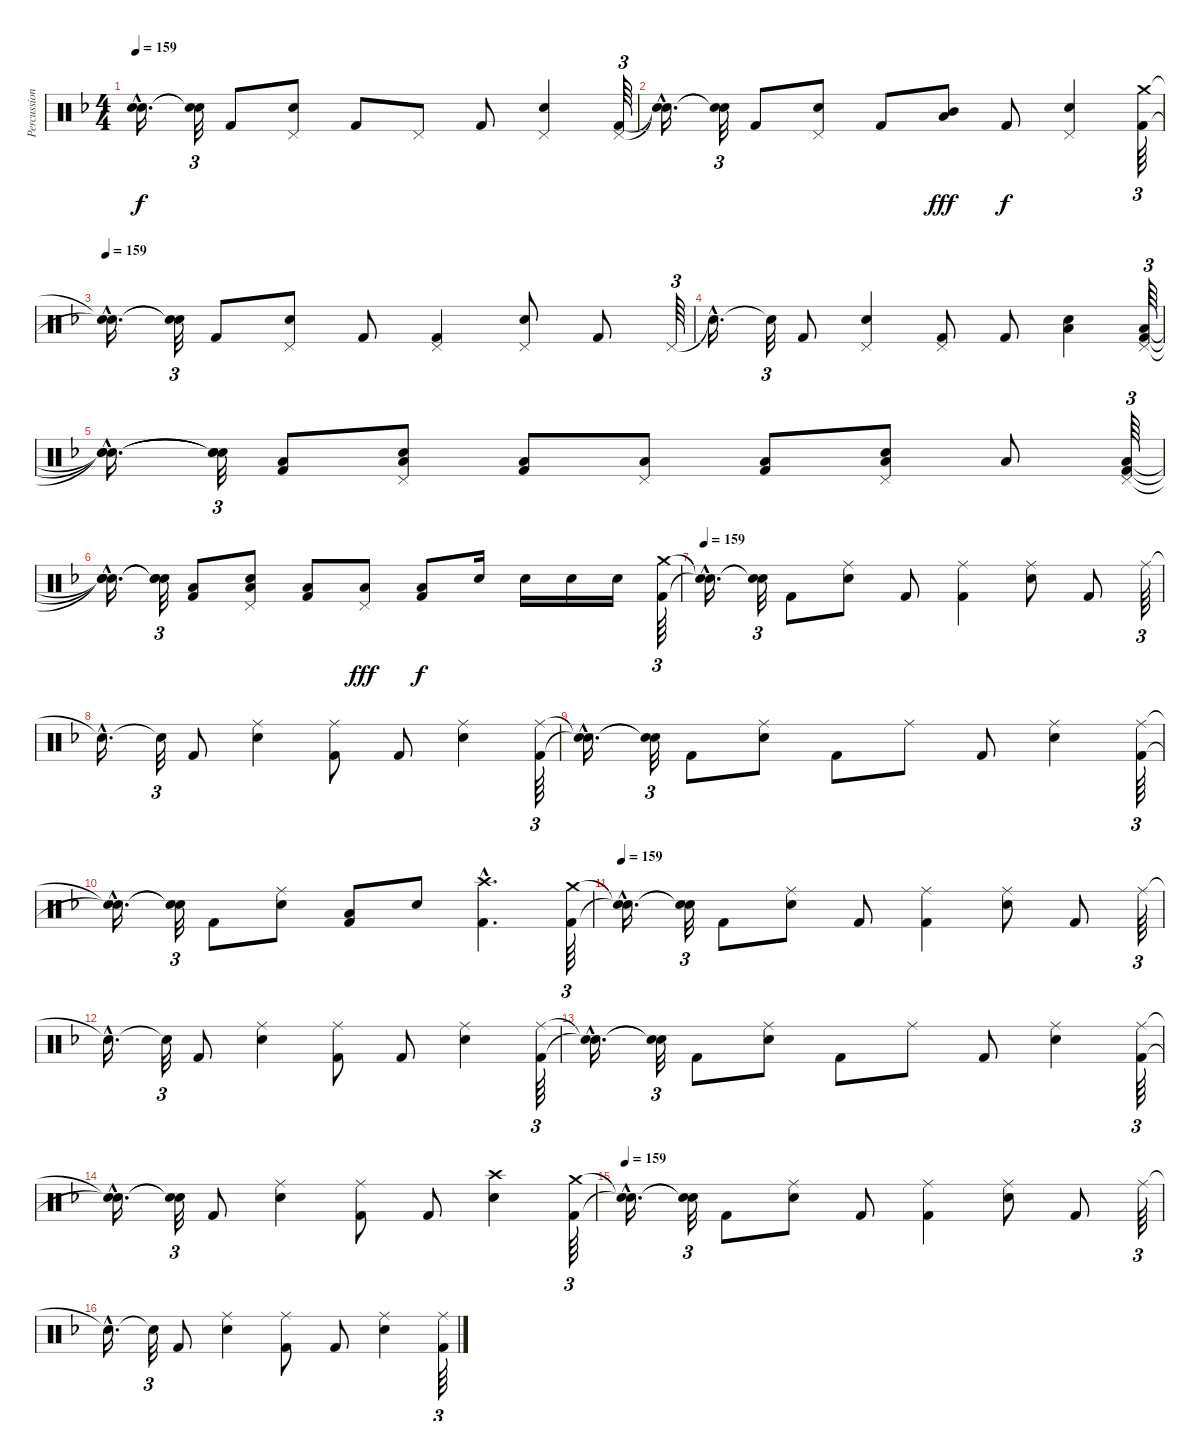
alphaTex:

\track ("Percussion" "Percussion") {instrument percussion}
\staff {score}
\articulation defaults
\ts (4 4)
\tempo 159
\clef neutral
\ks f
("Snare (hit)"{hac t} "Snare (hit)"{hac t}).16{d dy f} ("Snare (hit)"{t} "Snare (hit)"{t}).32{tu (3 2)} "Kick (hit) 2".8 ("Pedal Hi-Hat (hit)" "Electric Snare (hit)").8 "Kick (hit) 2".8 "Pedal Hi-Hat (hit)".8 "Kick (hit) 2".8 ("Pedal Hi-Hat (hit)" "Electric Snare (hit)").4 ("Pedal Hi-Hat (hit)" "Kick (hit) 2").64{tu (3 2)} |
("Snare (hit)"{hac t} "Snare (hit)"{hac t}).16{d} ("Snare (hit)"{t} "Snare (hit)"{t}).32{tu (3 2)} "Kick (hit) 2".8 ("Pedal Hi-Hat (hit)" "Electric Snare (hit)").8 "Kick (hit) 2".8 ("Mid Tom (hit)" "Low Tom (hit)").8{dy fff} "Kick (hit) 2".8{dy f} ("Pedal Hi-Hat (hit)" "Electric Snare (hit)").4 ("Crash medium (hit)" "Kick (hit) 2").64{tu (3 2)} |
\tempo 159
("Snare (hit)"{hac t} "Snare (hit)"{hac t}).16{d} ("Snare (hit)"{t} "Snare (hit)"{t}).32{tu (3 2)} "Kick (hit) 2".8 ("Pedal Hi-Hat (hit)" "Electric Snare (hit)").8 "Kick (hit) 2".8 ("Pedal Hi-Hat (hit)" "Kick (hit) 2").4 ("Pedal Hi-Hat (hit)" "Electric Snare (hit)").8 "Kick (hit) 2".8 "Pedal Hi-Hat (hit)".64{tu (3 2)} |
"Snare (hit)"{hac t}.16{d} "Snare (hit)"{t}.32{tu (3 2)} "Kick (hit) 2".8 ("Pedal Hi-Hat (hit)" "Electric Snare (hit)").4 ("Pedal Hi-Hat (hit)" "Kick (hit) 2").8 "Kick (hit) 2".8 ("Low Tom (hit)" "Electric Snare (hit)").4 ("Pedal Hi-Hat (hit)" "Low Tom (hit)" "Kick (hit) 2").64{tu (3 2)} |
("Snare (hit)"{hac t} "Snare (hit)"{hac t} "Snare (hit)"{hac t}).16{d} ("Snare (hit)"{t} "Snare (hit)"{t} "Snare (hit)"{t}).32{tu (3 2)} ("Low Tom (hit)" "Kick (hit) 2").8 ("Pedal Hi-Hat (hit)" "Low Tom (hit)" "Electric Snare (hit)").8 ("Low Tom (hit)" "Kick (hit) 2").8 ("Pedal Hi-Hat (hit)" "Low Tom (hit)").8 ("Low Tom (hit)" "Kick (hit) 2").8 ("Pedal Hi-Hat (hit)" "Low Tom (hit)" "Electric Snare (hit)").8 "Low Tom (hit)".8 ("Pedal Hi-Hat (hit)" "Low Tom (hit)" "Kick (hit) 2").64{tu (3 2)} |
("Snare (hit)"{hac t} "Snare (hit)"{hac t} "Snare (hit)"{hac t}).16{d} ("Snare (hit)"{t} "Snare (hit)"{t} "Snare (hit)"{t}).32{tu (3 2)} ("Low Tom (hit)" "Kick (hit) 2").8 ("Pedal Hi-Hat (hit)" "Low Tom (hit)" "Electric Snare (hit)").8 ("Low Tom (hit)" "Kick (hit) 2").8 ("Pedal Hi-Hat (hit)" "Low Tom (hit)").8{dy fff} ("Low Tom (hit)" "Kick (hit) 2").8{dy f} "Electric Snare (hit)".16 "Electric Snare (hit)".16 "Electric Snare (hit)".16 "Electric Snare (hit)".16 ("Crash medium (hit)" "Kick (hit) 2").64{tu (3 2)} |
\tempo 159
("Snare (hit)"{hac t} "Snare (hit)"{hac t}).16{d} ("Snare (hit)"{t} "Snare (hit)"{t}).32{tu (3 2)} "Kick (hit) 2".8 ("Ride (middle)" "Electric Snare (hit)").8 "Kick (hit) 2".8 ("Ride (middle)" "Kick (hit) 2").4 ("Ride (middle)" "Electric Snare (hit)").8 "Kick (hit) 2".8 "Ride (middle)".64{tu (3 2)} |
"Snare (hit)"{hac t}.16{d} "Snare (hit)"{t}.32{tu (3 2)} "Kick (hit) 2".8 ("Ride (middle)" "Electric Snare (hit)").4 ("Ride (middle)" "Kick (hit) 2").8 "Kick (hit) 2".8 ("Ride (middle)" "Electric Snare (hit)").4 ("Ride (middle)" "Kick (hit) 2").64{tu (3 2)} |
("Snare (hit)"{hac t} "Snare (hit)"{hac t}).16{d} ("Snare (hit)"{t} "Snare (hit)"{t}).32{tu (3 2)} "Kick (hit) 2".8 ("Ride (middle)" "Electric Snare (hit)").8 "Kick (hit) 2".8 "Ride (middle)".8 "Kick (hit) 2".8 ("Ride (middle)" "Electric Snare (hit)").4 ("Ride (middle)" "Kick (hit) 2").64{tu (3 2)} |
("Snare (hit)"{hac t} "Snare (hit)"{hac t}).16{d} ("Snare (hit)"{t} "Snare (hit)"{t}).32{tu (3 2)} "Kick (hit) 2".8 ("Ride (middle)" "Electric Snare (hit)").8 ("Low Tom (hit)" "Kick (hit) 2").8 "Electric Snare (hit)".8 ("Crash high (hit)"{hac} "Kick (hit) 2"{hac}).4{d} ("Crash medium (hit)" "Kick (hit) 2").64{tu (3 2)} |
\tempo 159
("Snare (hit)"{hac t} "Snare (hit)"{hac t}).16{d} ("Snare (hit)"{t} "Snare (hit)"{t}).32{tu (3 2)} "Kick (hit) 2".8 ("Ride (middle)" "Electric Snare (hit)").8 "Kick (hit) 2".8 ("Ride (middle)" "Kick (hit) 2").4 ("Ride (middle)" "Electric Snare (hit)").8 "Kick (hit) 2".8 "Ride (middle)".64{tu (3 2)} |
"Snare (hit)"{hac t}.16{d} "Snare (hit)"{t}.32{tu (3 2)} "Kick (hit) 2".8 ("Ride (middle)" "Electric Snare (hit)").4 ("Ride (middle)" "Kick (hit) 2").8 "Kick (hit) 2".8 ("Ride (middle)" "Electric Snare (hit)").4 ("Ride (middle)" "Kick (hit) 2").64{tu (3 2)} |
("Snare (hit)"{hac t} "Snare (hit)"{hac t}).16{d} ("Snare (hit)"{t} "Snare (hit)"{t}).32{tu (3 2)} "Kick (hit) 2".8 ("Ride (middle)" "Electric Snare (hit)").8 "Kick (hit) 2".8 "Ride (middle)".8 "Kick (hit) 2".8 ("Ride (middle)" "Electric Snare (hit)").4 ("Ride (middle)" "Kick (hit) 2").64{tu (3 2)} |
("Snare (hit)"{hac t} "Snare (hit)"{hac t}).16{d} ("Snare (hit)"{t} "Snare (hit)"{t}).32{tu (3 2)} "Kick (hit) 2".8 ("Ride (middle)" "Electric Snare (hit)").4 ("Ride (middle)" "Kick (hit) 2").8 "Kick (hit) 2".8 ("Crash high (hit)" "Electric Snare (hit)").4 ("Crash medium (hit)" "Kick (hit) 2").64{tu (3 2)} |
\tempo 159
("Snare (hit)"{hac t} "Snare (hit)"{hac t}).16{d} ("Snare (hit)"{t} "Snare (hit)"{t}).32{tu (3 2)} "Kick (hit) 2".8 ("Ride (middle)" "Electric Snare (hit)").8 "Kick (hit) 2".8 ("Ride (middle)" "Kick (hit) 2").4 ("Ride (middle)" "Electric Snare (hit)").8 "Kick (hit) 2".8 "Ride (middle)".64{tu (3 2)} |
"Snare (hit)"{hac t}.16{d} "Snare (hit)"{t}.32{tu (3 2)} "Kick (hit) 2".8 ("Ride (middle)" "Electric Snare (hit)").4 ("Ride (middle)" "Kick (hit) 2").8 "Kick (hit) 2".8 ("Ride (middle)" "Electric Snare (hit)").4 ("Ride (middle)" "Kick (hit) 2").64{tu (3 2)}
